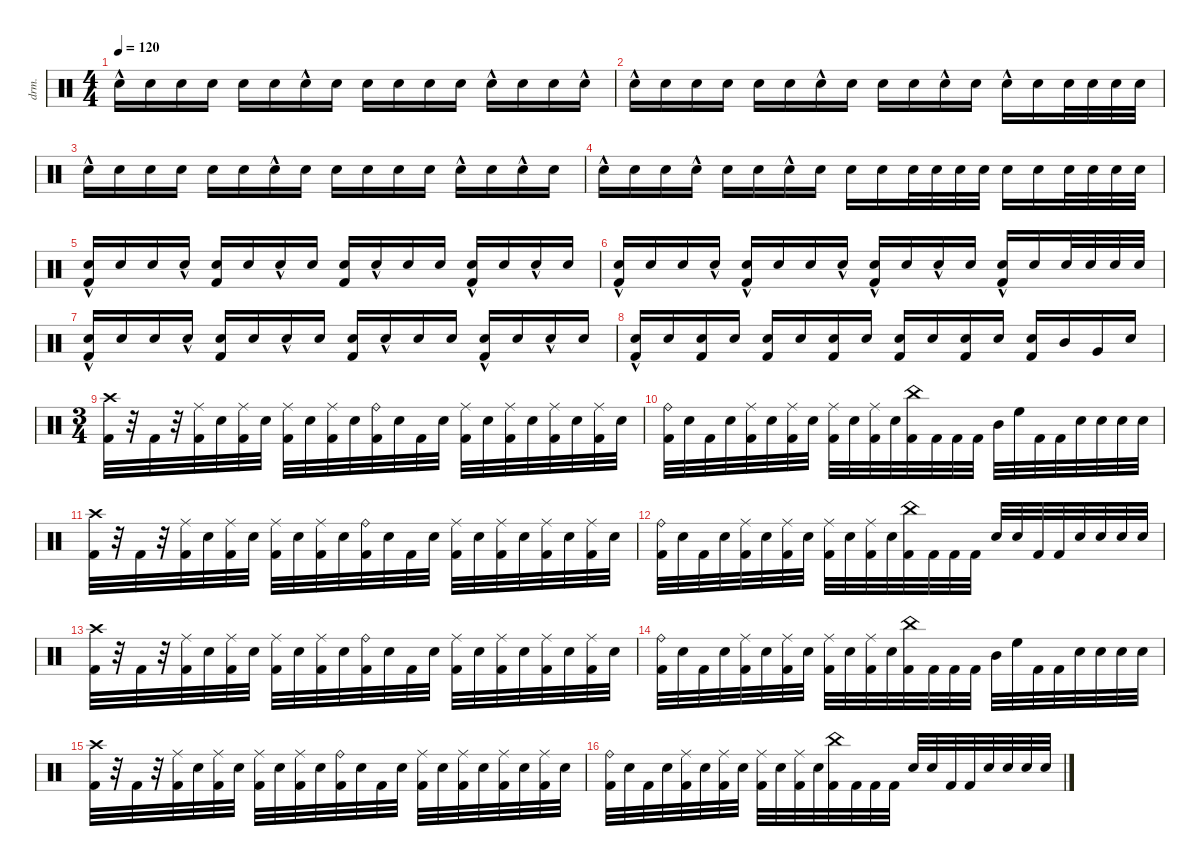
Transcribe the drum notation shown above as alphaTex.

\defaultSystemsLayout 4
\hideDynamics
\bracketExtendMode nobrackets
\otherSystemsTrackNameOrientation horizontal
\track ("Percussion" "drm.") {instrument percussion}
\staff {score}
\articulation defaults
\ts (4 4)
\tempo 120
\clef neutral
\ks c "Snare (hit) 2"{hac}.16{dy f beam Down} "Snare (hit) 2".16{dy p beam Down} "Snare (hit) 2".16{beam Down} "Snare (hit) 2".16{beam Down} "Snare (hit) 2".16{beam Down} "Snare (hit) 2".16{beam Down} "Snare (hit) 2"{hac}.16{dy f beam Down} "Snare (hit) 2".16{dy p beam Down} "Snare (hit) 2".16{beam Down} "Snare (hit) 2".16{beam Down} "Snare (hit) 2".16{beam Down} "Snare (hit) 2".16{beam Down} "Snare (hit) 2"{hac}.16{dy f beam Down} "Snare (hit) 2".16{dy p beam Down} "Snare (hit) 2".16{beam Down} "Snare (hit) 2"{hac}.16{dy f beam Down}
|
"Snare (hit) 2"{hac}.16{beam Down} "Snare (hit) 2".16{dy p beam Down} "Snare (hit) 2".16{beam Down} "Snare (hit) 2".16{beam Down} "Snare (hit) 2".16{beam Down} "Snare (hit) 2".16{beam Down} "Snare (hit) 2"{hac}.16{dy f beam Down} "Snare (hit) 2".16{dy p beam Down} "Snare (hit) 2".16{beam Down} "Snare (hit) 2".16{beam Down} "Snare (hit) 2"{hac}.16{dy f beam Down} "Snare (hit) 2".16{dy p beam Down} "Snare (hit) 2"{hac}.16{dy f beam Down} "Snare (hit) 2".16{dy p beam Down} "Snare (hit) 2".32{dy f beam Down} "Snare (hit) 2".32{beam Down} "Snare (hit) 2".32{beam Down} "Snare (hit) 2".32{beam Down} |
"Snare (hit) 2"{hac}.16{beam Down} "Snare (hit) 2".16{dy p beam Down} "Snare (hit) 2".16{beam Down} "Snare (hit) 2".16{beam Down} "Snare (hit) 2".16{beam Down} "Snare (hit) 2".16{beam Down} "Snare (hit) 2"{hac}.16{dy f beam Down} "Snare (hit) 2".16{dy p beam Down} "Snare (hit) 2".16{beam Down} "Snare (hit) 2".16{beam Down} "Snare (hit) 2".16{beam Down} "Snare (hit) 2".16{beam Down} "Snare (hit) 2"{hac}.16{dy f beam Down} "Snare (hit) 2".16{dy p beam Down} "Snare (hit) 2"{hac}.16{dy f beam Down} "Snare (hit) 2".16{dy p beam Down} |
"Snare (hit) 2"{hac}.16{dy f beam Down} "Snare (hit) 2".16{dy p beam Down} "Snare (hit) 2".16{beam Down} "Snare (hit) 2"{hac}.16{dy f beam Down} "Snare (hit) 2".16{dy p beam Down} "Snare (hit) 2".16{beam Down} "Snare (hit) 2"{hac}.16{dy f beam Down} "Snare (hit) 2".16{dy p beam Down} "Snare (hit) 2".16{dy fff beam Down} "Snare (hit) 2".16{dy p beam Down} "Snare (hit) 2".32{dy f beam Down} "Snare (hit) 2".32{beam Down} "Snare (hit) 2".32{beam Down} "Snare (hit) 2".32{beam Down} "Snare (hit) 2".16{dy fff beam Down} "Snare (hit) 2".16{beam Down} "Snare (hit) 2".32{dy f beam Down} "Snare (hit) 2".32{beam Down} "Snare (hit) 2".32{beam Down} "Snare (hit) 2".32{beam Down} |
("Kick (hit) 2" "Snare (hit) 2"{hac}).16{dy fff beam Up} "Snare (hit) 2".16{dy mp beam Up} "Snare (hit) 2".16{beam Up} "Snare (hit) 2"{hac}.16{dy f beam Up} ("Kick (hit) 2" "Snare (hit) 2").16{dy fff beam Up} "Snare (hit) 2".16{dy mp beam Up} "Snare (hit) 2"{hac}.16{dy f beam Up} "Snare (hit) 2".16{dy mp beam Up} ("Kick (hit) 2" "Snare (hit) 2").16{dy fff beam Up} "Snare (hit) 2"{hac}.16{dy f beam Up} "Snare (hit) 2".16{dy mp beam Up} "Snare (hit) 2".16{beam Up} ("Kick (hit) 2" "Snare (hit) 2"{hac}).16{dy fff beam Up} "Snare (hit) 2".16{dy mp beam Up} "Snare (hit) 2"{hac}.16{dy f beam Up} "Snare (hit) 2".16{dy mp beam Up} |
("Kick (hit) 2" "Snare (hit) 2"{hac}).16{dy fff beam Up} "Snare (hit) 2".16{dy mp beam Up} "Snare (hit) 2".16{beam Up} "Snare (hit) 2"{hac}.16{dy f beam Up} ("Kick (hit) 2" "Snare (hit) 2"{hac}).16{dy fff beam Up} "Snare (hit) 2".16{dy mp beam Up} "Snare (hit) 2".16{beam Up} "Snare (hit) 2"{hac}.16{dy f beam Up} ("Kick (hit) 2" "Snare (hit) 2"{hac}).16{dy fff beam Up} "Snare (hit) 2".16{dy mp beam Up} "Snare (hit) 2"{hac}.16{dy f beam Up} "Snare (hit) 2".16{dy mp beam Up} ("Kick (hit) 2" "Snare (hit) 2"{hac}).16{dy fff beam Up} "Snare (hit) 2".16{dy mp beam Up} "Snare (hit) 2".32{dy f beam Up} "Snare (hit) 2".32{beam Up} "Snare (hit) 2".32{beam Up} "Snare (hit) 2".32{beam Up} |
("Kick (hit) 2" "Snare (hit) 2"{hac}).16{dy fff beam Up} "Snare (hit) 2".16{dy mp beam Up} "Snare (hit) 2".16{beam Up} "Snare (hit) 2"{hac}.16{dy f beam Up} ("Kick (hit) 2" "Snare (hit) 2").16{dy fff beam Up} "Snare (hit) 2".16{dy mp beam Up} "Snare (hit) 2"{hac}.16{dy f beam Up} "Snare (hit) 2".16{dy mp beam Up} ("Kick (hit) 2" "Snare (hit) 2").16{dy fff beam Up} "Snare (hit) 2"{hac}.16{dy f beam Up} "Snare (hit) 2".16{dy mp beam Up} "Snare (hit) 2".16{beam Up} ("Kick (hit) 2" "Snare (hit) 2"{hac}).16{dy fff beam Up} "Snare (hit) 2".16{dy mp beam Up} "Snare (hit) 2"{hac}.16{dy f beam Up} "Snare (hit) 2".16{dy mp beam Up} |
("Kick (hit) 2" "Snare (hit) 2"{hac}).16{dy fff beam Up} "Snare (hit) 2".16{dy mp beam Up} ("Kick (hit) 2" "Snare (hit) 2").16{dy fff beam Up} "Snare (hit) 2".16{dy mp beam Up} ("Kick (hit) 2" "Snare (hit) 2").16{dy fff beam Up} "Snare (hit) 2".16{dy mf beam Up} ("Kick (hit) 2" "Snare (hit) 2").16{dy fff beam Up} "Snare (hit) 2".16{dy f beam Up} ("Kick (hit) 2" "Snare (hit) 2").16{dy fff beam Up} "Snare (hit) 2".16{dy ff beam Up} ("Kick (hit) 2" "Snare (hit) 2").16{dy fff beam Up} "Snare (hit) 2".16{beam Up} ("Kick (hit) 2" "Snare (hit) 2").16{beam Up} "Mid Tom (hit)".16{beam Up} "Very Low Tom (hit)".16{beam Up} "Snare (hit) 2".16{beam Up} |
\ts (3 4)
\beaming (8 2 2 2)
("Kick (hit) 2" "Crash high (hit)").32{beam Down} r.32{beam Down} "Kick (hit) 2".32{beam Down} r.32{beam Down} ("Kick (hit) 2" "Ride (middle)").32{beam Down} "Snare (hit) 2".32{beam Down} ("Kick (hit) 2" "Ride (middle)").32{beam Down} "Snare (hit) 2".32{beam Down} ("Kick (hit) 2" "Ride (middle)").32{beam Down} "Snare (hit) 2".32{beam Down} ("Kick (hit) 2" "Ride (middle)").32{beam Down} "Snare (hit) 2".32{beam Down} ("Kick (hit) 2" "Ride (bell)").32{beam Down} "Snare (hit) 2".32{beam Down} "Kick (hit) 2".32{beam Down} "Snare (hit) 2".32{beam Down} ("Kick (hit) 2" "Ride (middle)").32{beam Down} "Snare (hit) 2".32{beam Down} ("Kick (hit) 2" "Ride (middle)").32{beam Down} "Snare (hit) 2".32{beam Down} ("Kick (hit) 2" "Ride (middle)").32{beam Down} "Snare (hit) 2".32{beam Down} ("Kick (hit) 2" "Ride (middle)").32{beam Down} "Snare (hit) 2".32{beam Down} |
("Kick (hit) 2" "Ride (bell)").32{beam Down} "Snare (hit) 2".32{beam Down} "Kick (hit) 2".32{beam Down} "Snare (hit) 2".32{beam Down} ("Kick (hit) 2" "Ride (middle)").32{beam Down} "Snare (hit) 2".32{beam Down} ("Kick (hit) 2" "Ride (middle)").32{beam Down} "Snare (hit) 2".32{beam Down} ("Kick (hit) 2" "Ride (middle)").32{beam Down} "Snare (hit) 2".32{beam Down} ("Kick (hit) 2" "Ride (middle)").32{beam Down} "Snare (hit) 2".32{beam Down} ("Kick (hit) 2" "China (hit)").32{beam Down} "Kick (hit) 2".32{beam Down} "Kick (hit) 2".32{beam Down} "Kick (hit) 2".32{beam Down} "Mid Tom (hit)".32{beam Down} "High Floor Tom (hit)".32{beam Down} "Kick (hit) 2".32{beam Down} "Kick (hit) 2".32{beam Down} "Snare (hit) 2".32{beam Down} "Snare (hit) 2".32{beam Down} "Snare (hit) 2".32{beam Down} "Snare (hit) 2".32{beam Down} |
("Kick (hit) 2" "Crash high (hit)").32{beam Down} r.32{beam Down} "Kick (hit) 2".32{beam Down} r.32{beam Down} ("Kick (hit) 2" "Ride (middle)").32{beam Down} "Snare (hit) 2".32{beam Down} ("Kick (hit) 2" "Ride (middle)").32{beam Down} "Snare (hit) 2".32{beam Down} ("Kick (hit) 2" "Ride (middle)").32{beam Down} "Snare (hit) 2".32{beam Down} ("Kick (hit) 2" "Ride (middle)").32{beam Down} "Snare (hit) 2".32{beam Down} ("Kick (hit) 2" "Ride (bell)").32{beam Down} "Snare (hit) 2".32{beam Down} "Kick (hit) 2".32{beam Down} "Snare (hit) 2".32{beam Down} ("Kick (hit) 2" "Ride (middle)").32{beam Down} "Snare (hit) 2".32{beam Down} ("Kick (hit) 2" "Ride (middle)").32{beam Down} "Snare (hit) 2".32{beam Down} ("Kick (hit) 2" "Ride (middle)").32{beam Down} "Snare (hit) 2".32{beam Down} ("Kick (hit) 2" "Ride (middle)").32{beam Down} "Snare (hit) 2".32{beam Down} |
("Kick (hit) 2" "Ride (bell)").32{beam Down} "Snare (hit) 2".32{beam Down} "Kick (hit) 2".32{beam Down} "Snare (hit) 2".32{beam Down} ("Kick (hit) 2" "Ride (middle)").32{beam Down} "Snare (hit) 2".32{beam Down} ("Kick (hit) 2" "Ride (middle)").32{beam Down} "Snare (hit) 2".32{beam Down} ("Kick (hit) 2" "Ride (middle)").32{beam Down} "Snare (hit) 2".32{beam Down} ("Kick (hit) 2" "Ride (middle)").32{beam Down} "Snare (hit) 2".32{beam Down} ("Kick (hit) 2" "China (hit)").32{beam Down} "Kick (hit) 2".32{beam Down} "Kick (hit) 2".32{beam Down} "Kick (hit) 2".32{beam Down} "Snare (hit) 2".32{beam Up} "Snare (hit) 2".32{beam Up} "Kick (hit) 2".32{beam Up} "Kick (hit) 2".32{beam Up} "Snare (hit) 2".32{beam Up} "Snare (hit) 2".32{beam Up} "Snare (hit) 2".32{beam Up} "Snare (hit) 2".32{beam Up} |
("Kick (hit) 2" "Crash high (hit)").32{beam Down} r.32{beam Down} "Kick (hit) 2".32{beam Down} r.32{beam Down} ("Kick (hit) 2" "Ride (middle)").32{beam Down} "Snare (hit) 2".32{beam Down} ("Kick (hit) 2" "Ride (middle)").32{beam Down} "Snare (hit) 2".32{beam Down} ("Kick (hit) 2" "Ride (middle)").32{beam Down} "Snare (hit) 2".32{beam Down} ("Kick (hit) 2" "Ride (middle)").32{beam Down} "Snare (hit) 2".32{beam Down} ("Kick (hit) 2" "Ride (bell)").32{beam Down} "Snare (hit) 2".32{beam Down} "Kick (hit) 2".32{beam Down} "Snare (hit) 2".32{beam Down} ("Kick (hit) 2" "Ride (middle)").32{beam Down} "Snare (hit) 2".32{beam Down} ("Kick (hit) 2" "Ride (middle)").32{beam Down} "Snare (hit) 2".32{beam Down} ("Kick (hit) 2" "Ride (middle)").32{beam Down} "Snare (hit) 2".32{beam Down} ("Kick (hit) 2" "Ride (middle)").32{beam Down} "Snare (hit) 2".32{beam Down} |
("Kick (hit) 2" "Ride (bell)").32{beam Down} "Snare (hit) 2".32{beam Down} "Kick (hit) 2".32{beam Down} "Snare (hit) 2".32{beam Down} ("Kick (hit) 2" "Ride (middle)").32{beam Down} "Snare (hit) 2".32{beam Down} ("Kick (hit) 2" "Ride (middle)").32{beam Down} "Snare (hit) 2".32{beam Down} ("Kick (hit) 2" "Ride (middle)").32{beam Down} "Snare (hit) 2".32{beam Down} ("Kick (hit) 2" "Ride (middle)").32{beam Down} "Snare (hit) 2".32{beam Down} ("Kick (hit) 2" "China (hit)").32{beam Down} "Kick (hit) 2".32{beam Down} "Kick (hit) 2".32{beam Down} "Kick (hit) 2".32{beam Down} "Mid Tom (hit)".32{beam Down} "High Floor Tom (hit)".32{beam Down} "Kick (hit) 2".32{beam Down} "Kick (hit) 2".32{beam Down} "Snare (hit) 2".32{beam Down} "Snare (hit) 2".32{beam Down} "Snare (hit) 2".32{beam Down} "Snare (hit) 2".32{beam Down} |
("Kick (hit) 2" "Crash high (hit)").32{beam Down} r.32{beam Down} "Kick (hit) 2".32{beam Down} r.32{beam Down} ("Kick (hit) 2" "Ride (middle)").32{beam Down} "Snare (hit) 2".32{beam Down} ("Kick (hit) 2" "Ride (middle)").32{beam Down} "Snare (hit) 2".32{beam Down} ("Kick (hit) 2" "Ride (middle)").32{beam Down} "Snare (hit) 2".32{beam Down} ("Kick (hit) 2" "Ride (middle)").32{beam Down} "Snare (hit) 2".32{beam Down} ("Kick (hit) 2" "Ride (bell)").32{beam Down} "Snare (hit) 2".32{beam Down} "Kick (hit) 2".32{beam Down} "Snare (hit) 2".32{beam Down} ("Kick (hit) 2" "Ride (middle)").32{beam Down} "Snare (hit) 2".32{beam Down} ("Kick (hit) 2" "Ride (middle)").32{beam Down} "Snare (hit) 2".32{beam Down} ("Kick (hit) 2" "Ride (middle)").32{beam Down} "Snare (hit) 2".32{beam Down} ("Kick (hit) 2" "Ride (middle)").32{beam Down} "Snare (hit) 2".32{beam Down} |
("Kick (hit) 2" "Ride (bell)").32{beam Down} "Snare (hit) 2".32{beam Down} "Kick (hit) 2".32{beam Down} "Snare (hit) 2".32{beam Down} ("Kick (hit) 2" "Ride (middle)").32{beam Down} "Snare (hit) 2".32{beam Down} ("Kick (hit) 2" "Ride (middle)").32{beam Down} "Snare (hit) 2".32{beam Down} ("Kick (hit) 2" "Ride (middle)").32{beam Down} "Snare (hit) 2".32{beam Down} ("Kick (hit) 2" "Ride (middle)").32{beam Down} "Snare (hit) 2".32{beam Down} ("Kick (hit) 2" "China (hit)").32{beam Down} "Kick (hit) 2".32{beam Down} "Kick (hit) 2".32{beam Down} "Kick (hit) 2".32{beam Down} "Snare (hit) 2".32{beam Up} "Snare (hit) 2".32{beam Up} "Kick (hit) 2".32{beam Up} "Kick (hit) 2".32{beam Up} "Snare (hit) 2".32{beam Up} "Snare (hit) 2".32{beam Up} "Snare (hit) 2".32{beam Up} "Snare (hit) 2".32{beam Up}
